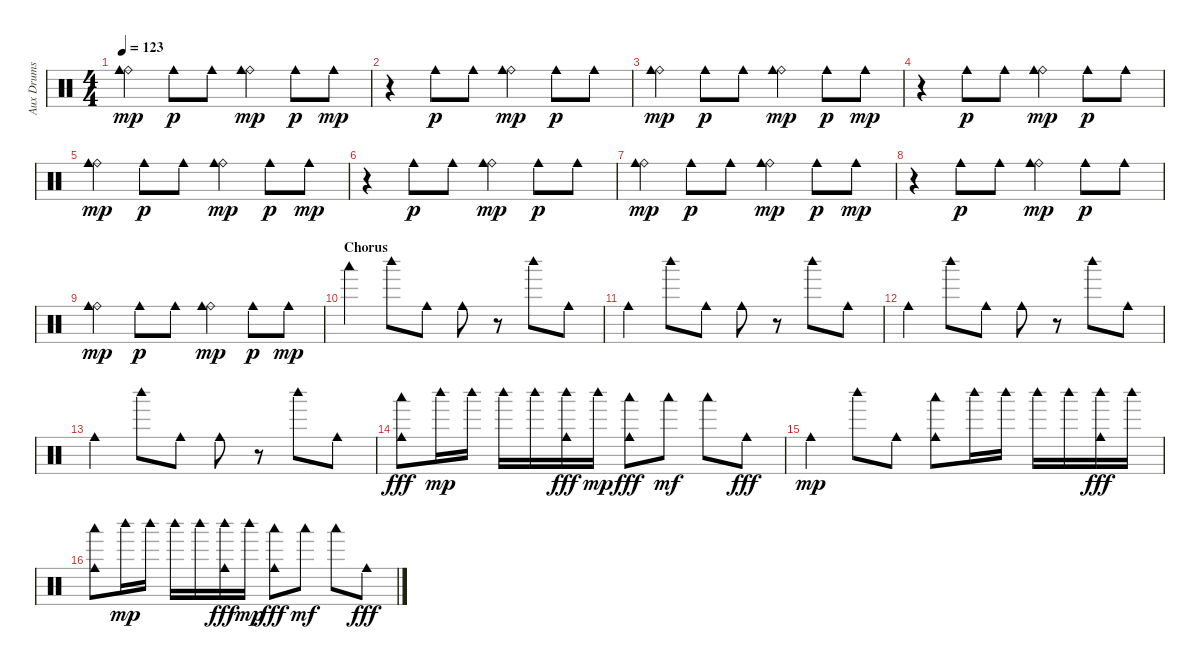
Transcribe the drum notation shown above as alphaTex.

\track ("Aux Drums" "Aux Drums") {instrument percussion}
\staff {score}
\articulation defaults
\ts (4 4)
\tempo 123
\clef neutral
\ks c
("Ride (bell)" "Cowbell medium (hit)").4{dy mp} "Cowbell medium (hit)".8{dy p} "Cowbell medium (hit)".8 ("Ride (bell)" "Cowbell medium (hit)").4{dy mp} "Cowbell medium (hit)".8{dy p} "Cowbell medium (hit)".8{dy mp} |
r.4 "Cowbell medium (hit)".8{dy p} "Cowbell medium (hit)".8 ("Ride (bell)" "Cowbell medium (hit)").4{dy mp} "Cowbell medium (hit)".8{dy p} "Cowbell medium (hit)".8 |
("Ride (bell)" "Cowbell medium (hit)").4{dy mp} "Cowbell medium (hit)".8{dy p} "Cowbell medium (hit)".8 ("Ride (bell)" "Cowbell medium (hit)").4{dy mp} "Cowbell medium (hit)".8{dy p} "Cowbell medium (hit)".8{dy mp} |
r.4 "Cowbell medium (hit)".8{dy p} "Cowbell medium (hit)".8 ("Ride (bell)" "Cowbell medium (hit)").4{dy mp} "Cowbell medium (hit)".8{dy p} "Cowbell medium (hit)".8 |
("Ride (bell)" "Cowbell medium (hit)").4{dy mp} "Cowbell medium (hit)".8{dy p} "Cowbell medium (hit)".8 ("Ride (bell)" "Cowbell medium (hit)").4{dy mp} "Cowbell medium (hit)".8{dy p} "Cowbell medium (hit)".8{dy mp} |
r.4 "Cowbell medium (hit)".8{dy p} "Cowbell medium (hit)".8 ("Ride (bell)" "Cowbell medium (hit)").4{dy mp} "Cowbell medium (hit)".8{dy p} "Cowbell medium (hit)".8 |
("Ride (bell)" "Cowbell medium (hit)").4{dy mp} "Cowbell medium (hit)".8{dy p} "Cowbell medium (hit)".8 ("Ride (bell)" "Cowbell medium (hit)").4{dy mp} "Cowbell medium (hit)".8{dy p} "Cowbell medium (hit)".8{dy mp} |
r.4 "Cowbell medium (hit)".8{dy p} "Cowbell medium (hit)".8 ("Ride (bell)" "Cowbell medium (hit)").4{dy mp} "Cowbell medium (hit)".8{dy p} "Cowbell medium (hit)".8 |
("Ride (bell)" "Cowbell medium (hit)").4{dy mp} "Cowbell medium (hit)".8{dy p} "Cowbell medium (hit)".8 ("Ride (bell)" "Cowbell medium (hit)").4{dy mp} "Cowbell medium (hit)".8{dy p} "Cowbell medium (hit)".8{dy mp} |
\section ("" "Chorus")
"Woodblock low (hit)".4 "Woodblock high (hit)".8 "Cowbell medium (hit)".8 "Cowbell medium (hit)".8 r.8 "Woodblock high (hit)".8 "Cowbell medium (hit)".8 |
"Cowbell medium (hit)".4 "Woodblock high (hit)".8 "Cowbell medium (hit)".8 "Cowbell medium (hit)".8 r.8 "Woodblock high (hit)".8 "Cowbell medium (hit)".8 |
"Cowbell medium (hit)".4 "Woodblock high (hit)".8 "Cowbell medium (hit)".8 "Cowbell medium (hit)".8 r.8 "Woodblock high (hit)".8 "Cowbell medium (hit)".8 |
"Cowbell medium (hit)".4 "Woodblock high (hit)".8 "Cowbell medium (hit)".8 "Cowbell medium (hit)".8 r.8 "Woodblock high (hit)".8 "Cowbell medium (hit)".8 |
("Woodblock low (hit)" "Cowbell medium (hit)").8{dy fff} "Woodblock high (hit)".16{dy mp} "Woodblock high (hit)".16 "Woodblock high (hit)".16 "Woodblock high (hit)".16 ("Woodblock high (hit)" "Cowbell medium (hit)").16{dy fff} "Woodblock high (hit)".16{dy mp} ("Woodblock low (hit)" "Cowbell medium (hit)").8{dy fff} "Woodblock low (hit)".8{dy mf} "Woodblock low (hit)".8 "Cowbell medium (hit)".8{dy fff} |
"Cowbell medium (hit)".4{dy mp} "Woodblock high (hit)".8 "Cowbell medium (hit)".8 ("Woodblock low (hit)" "Cowbell medium (hit)").8 "Woodblock high (hit)".16 "Woodblock high (hit)".16 "Woodblock high (hit)".16 "Woodblock high (hit)".16 ("Woodblock high (hit)" "Cowbell medium (hit)").16{dy fff} "Woodblock high (hit)".16 |
("Woodblock low (hit)" "Cowbell medium (hit)").8 "Woodblock high (hit)".16{dy mp} "Woodblock high (hit)".16 "Woodblock high (hit)".16 "Woodblock high (hit)".16 ("Woodblock high (hit)" "Cowbell medium (hit)").16{dy fff} "Woodblock high (hit)".16{dy mp} ("Woodblock low (hit)" "Cowbell medium (hit)").8{dy fff} "Woodblock low (hit)".8{dy mf} "Woodblock low (hit)".8 "Cowbell medium (hit)".8{dy fff}
